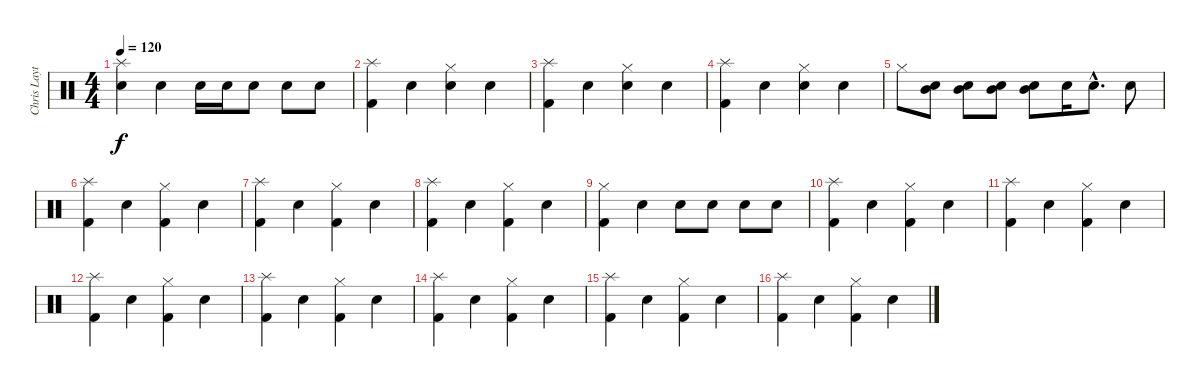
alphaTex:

\track ("Chris Layton" "Chris Layt") {instrument percussion}
\staff {score}
\articulation defaults
\ts (4 4)
\tempo 120
\clef neutral
\ks c
("Snare (hit) 2" "Splash (hit)").4{dy f} "Snare (hit) 2".4 "Snare (hit) 2".16 "Snare (hit) 2".16 "Snare (hit) 2".8 "Snare (hit) 2".8 "Snare (hit) 2".8 |
("Kick (hit) 2" "Splash (hit)").4 "Snare (hit) 2".4 ("Snare (hit) 2" "Hi-Hat (closed)").4 "Snare (hit) 2".4 |
("Kick (hit) 2" "Splash (hit)").4 "Snare (hit) 2".4 ("Snare (hit) 2" "Hi-Hat (closed)").4 "Snare (hit) 2".4 |
("Kick (hit) 2" "Splash (hit)").4 "Snare (hit) 2".4 ("Snare (hit) 2" "Hi-Hat (closed)").4 "Snare (hit) 2".4 |
"Hi-Hat (closed)".8 ("Mid Tom (hit)" "Snare (hit) 2").8 ("Mid Tom (hit)" "Snare (hit) 2").8 ("Mid Tom (hit)" "Snare (hit) 2").8 ("Mid Tom (hit)" "Snare (hit) 2").8 "Snare (hit) 2".16 "Snare (hit) 2"{hac}.8{d} "Snare (hit) 2".8 |
("Kick (hit) 2" "Splash (hit)").4 "Snare (hit) 2".4 ("Kick (hit) 2" "Hi-Hat (closed)").4 "Snare (hit) 2".4 |
("Kick (hit) 2" "Splash (hit)").4 "Snare (hit) 2".4 ("Kick (hit) 2" "Hi-Hat (closed)").4 "Snare (hit) 2".4 |
("Kick (hit) 2" "Splash (hit)").4 "Snare (hit) 2".4 ("Kick (hit) 2" "Hi-Hat (closed)").4 "Snare (hit) 2".4 |
("Kick (hit) 2" "Hi-Hat (closed)").4 "Snare (hit) 2".4 "Snare (hit) 2".8 "Snare (hit) 2".8 "Snare (hit) 2".8 "Snare (hit) 2".8 |
("Kick (hit) 2" "Splash (hit)").4 "Snare (hit) 2".4 ("Kick (hit) 2" "Hi-Hat (closed)").4 "Snare (hit) 2".4 |
("Kick (hit) 2" "Splash (hit)").4 "Snare (hit) 2".4 ("Kick (hit) 2" "Hi-Hat (closed)").4 "Snare (hit) 2".4 |
("Kick (hit) 2" "Splash (hit)").4 "Snare (hit) 2".4 ("Kick (hit) 2" "Hi-Hat (closed)").4 "Snare (hit) 2".4 |
("Kick (hit) 2" "Splash (hit)").4 "Snare (hit) 2".4 ("Kick (hit) 2" "Hi-Hat (closed)").4 "Snare (hit) 2".4 |
("Kick (hit) 2" "Splash (hit)").4 "Snare (hit) 2".4 ("Kick (hit) 2" "Hi-Hat (closed)").4 "Snare (hit) 2".4 |
("Kick (hit) 2" "Splash (hit)").4 "Snare (hit) 2".4 ("Kick (hit) 2" "Hi-Hat (closed)").4 "Snare (hit) 2".4 |
("Kick (hit) 2" "Splash (hit)").4 "Snare (hit) 2".4 ("Kick (hit) 2" "Hi-Hat (closed)").4 "Snare (hit) 2".4
